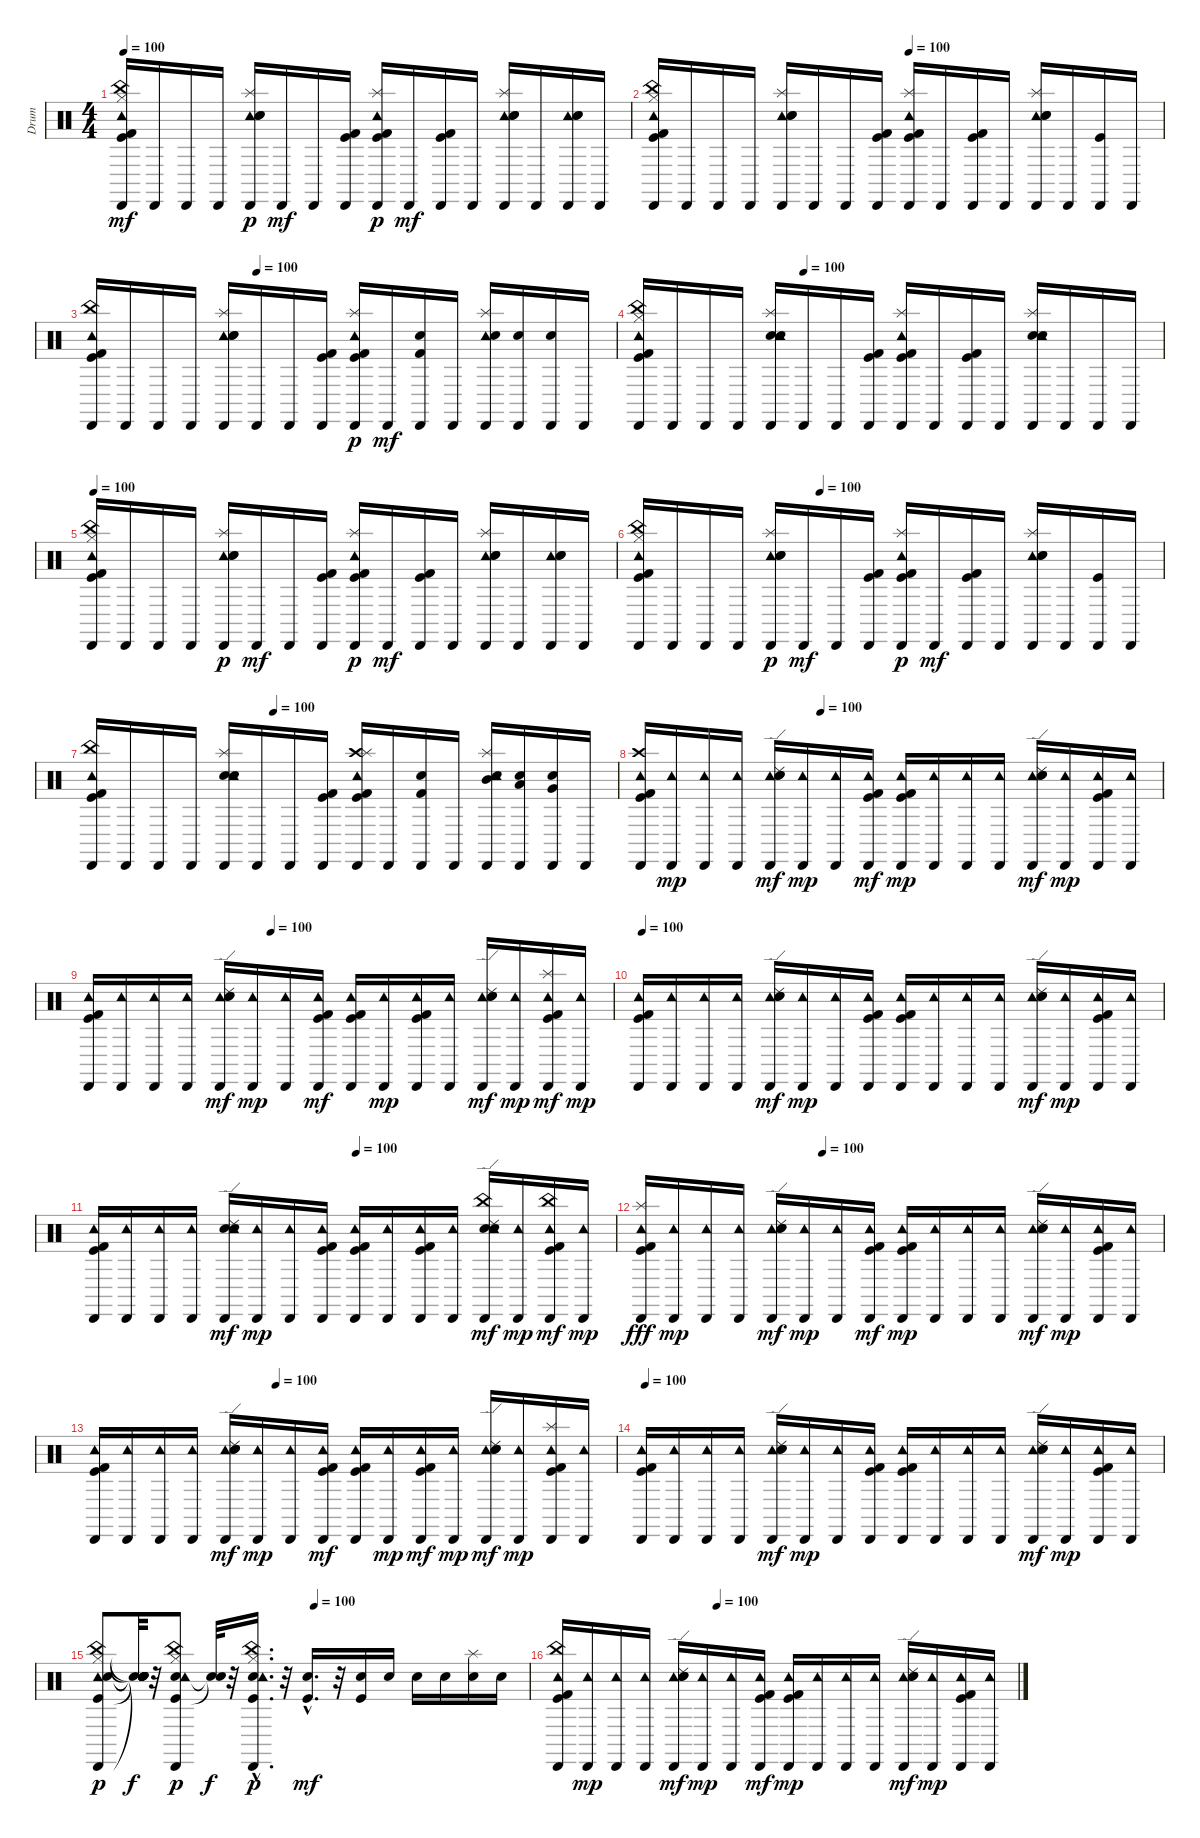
\track ("Drum" "Drum") {instrument percussion}
\staff {score}
\articulation defaults
\ts (4 4)
\tempo 100
\clef neutral
\ks c
("Cabasa (hit)" "Kick (hit)" "Tambourine (hit)" "China (hit)" "Hi-Hat (closed)" "Kick (hit) 2").16{dy mf} "Cabasa (hit)".16 "Cabasa (hit)".16 "Cabasa (hit)".16 ("Tambourine (hit)" "Cabasa (hit)" "Snare (hit) 2" "Splash (hit)" "Electric Snare (hit)").16{dy p} "Cabasa (hit)".16{dy mf} "Cabasa (hit)".16 ("Cabasa (hit)" "Kick (hit) 2" "Kick (hit)").16 ("Tambourine (hit)" "Kick (hit) 2" "Cabasa (hit)" "Kick (hit)" "Splash (hit)").16{dy p} "Cabasa (hit)".16{dy mf} ("Cabasa (hit)" "Kick (hit)" "Kick (hit) 2").16 "Cabasa (hit)".16 ("Tambourine (hit)" "Cabasa (hit)" "Splash (hit)" "Snare (hit) 2" "Electric Snare (hit)").16 "Cabasa (hit)".16 ("Tambourine (hit)" "Cabasa (hit)" "Snare (hit) 2" "Electric Snare (hit)").16 "Cabasa (hit)".16 |
\tempo (100 0.5)
("Hi-Hat (closed)" "Kick (hit)" "China (hit)" "Kick (hit) 2" "Tambourine (hit)" "Cabasa (hit)").16 "Cabasa (hit)".16 "Cabasa (hit)".16 "Cabasa (hit)".16 ("Tambourine (hit)" "Cabasa (hit)" "Splash (hit)" "Electric Snare (hit)" "Snare (hit) 2").16 "Cabasa (hit)".16 "Cabasa (hit)".16 ("Cabasa (hit)" "Kick (hit) 2" "Kick (hit)").16 ("Cabasa (hit)" "Kick (hit) 2" "Splash (hit)" "Tambourine (hit)" "Kick (hit)").16 "Cabasa (hit)".16 ("Kick (hit)" "Cabasa (hit)" "Kick (hit) 2").16 "Cabasa (hit)".16 ("Tambourine (hit)" "Cabasa (hit)" "Electric Snare (hit)" "Splash (hit)" "Snare (hit) 2").16 "Cabasa (hit)".16 ("Cabasa (hit)" "Kick (hit)").16 "Cabasa (hit)".16 |
\tempo (100 0.3125)
("China (hit)" "Kick (hit)" "Cabasa (hit)" "Kick (hit) 2" "Tambourine (hit)").16 "Cabasa (hit)".16 "Cabasa (hit)".16 "Cabasa (hit)".16 ("Tambourine (hit)" "Splash (hit)" "Electric Snare (hit)" "Snare (hit) 2" "Cabasa (hit)").16 "Cabasa (hit)".16 "Cabasa (hit)".16 ("Kick (hit)" "Kick (hit) 2" "Cabasa (hit)").16 ("Cabasa (hit)" "Tambourine (hit)" "Kick (hit) 2" "Kick (hit)" "Splash (hit)").16{dy p} "Cabasa (hit)".16{dy mf} ("Kick (hit) 2" "Snare (hit) 2" "Cabasa (hit)").16 "Cabasa (hit)".16 ("Splash (hit)" "Tambourine (hit)" "Snare (hit) 2" "Cabasa (hit)").16 ("Cabasa (hit)" "Snare (hit) 2").16 ("Cabasa (hit)" "Snare (hit) 2").16 "Cabasa (hit)".16 |
\tempo (100 0.3125)
("Kick (hit) 2" "Hi-Hat (closed)" "China (hit)" "Kick (hit)" "Cabasa (hit)" "Tambourine (hit)").16 "Cabasa (hit)".16 "Cabasa (hit)".16 "Cabasa (hit)".16 ("Splash (hit)" "Snare (hit) 2" "Cabasa (hit)" "Tambourine (hit)" "Electric Snare (hit)").16 "Cabasa (hit)".16 "Cabasa (hit)".16 ("Kick (hit) 2" "Kick (hit)" "Cabasa (hit)").16 ("Kick (hit) 2" "Splash (hit)" "Kick (hit)" "Cabasa (hit)" "Tambourine (hit)").16 "Cabasa (hit)".16 ("Kick (hit) 2" "Kick (hit)" "Cabasa (hit)").16 "Cabasa (hit)".16 ("Snare (hit) 2" "Splash (hit)" "Cabasa (hit)" "Tambourine (hit)" "Electric Snare (hit)").16 "Cabasa (hit)".16 "Cabasa (hit)".16 "Cabasa (hit)".16 |
\tempo 100
("Tambourine (hit)" "Cabasa (hit)" "Kick (hit)" "China (hit)" "Hi-Hat (closed)" "Kick (hit) 2").16 "Cabasa (hit)".16 "Cabasa (hit)".16 "Cabasa (hit)".16 ("Tambourine (hit)" "Cabasa (hit)" "Snare (hit) 2" "Splash (hit)" "Electric Snare (hit)").16{dy p} "Cabasa (hit)".16{dy mf} "Cabasa (hit)".16 ("Cabasa (hit)" "Kick (hit)" "Kick (hit) 2").16 ("Tambourine (hit)" "Cabasa (hit)" "Kick (hit)" "Splash (hit)" "Kick (hit) 2").16{dy p} "Cabasa (hit)".16{dy mf} ("Cabasa (hit)" "Kick (hit)" "Kick (hit) 2").16 "Cabasa (hit)".16 ("Tambourine (hit)" "Cabasa (hit)" "Splash (hit)" "Snare (hit) 2" "Electric Snare (hit)").16 "Cabasa (hit)".16 ("Tambourine (hit)" "Cabasa (hit)" "Snare (hit) 2" "Electric Snare (hit)").16 "Cabasa (hit)".16 |
\tempo (100 0.34375)
("Tambourine (hit)" "Cabasa (hit)" "Kick (hit)" "China (hit)" "Hi-Hat (closed)" "Kick (hit) 2").16 "Cabasa (hit)".16 "Cabasa (hit)".16 "Cabasa (hit)".16 ("Tambourine (hit)" "Cabasa (hit)" "Snare (hit) 2" "Splash (hit)" "Electric Snare (hit)").16{dy p} "Cabasa (hit)".16{dy mf} "Cabasa (hit)".16 ("Cabasa (hit)" "Kick (hit)" "Kick (hit) 2").16 ("Tambourine (hit)" "Cabasa (hit)" "Kick (hit)" "Splash (hit)" "Kick (hit) 2").16{dy p} "Cabasa (hit)".16{dy mf} ("Cabasa (hit)" "Kick (hit)" "Kick (hit) 2").16 "Cabasa (hit)".16 ("Tambourine (hit)" "Cabasa (hit)" "Splash (hit)" "Snare (hit) 2" "Electric Snare (hit)").16 "Cabasa (hit)".16 ("Cabasa (hit)" "Kick (hit)").16 "Cabasa (hit)".16 |
\tempo (100 0.34375)
("China (hit)" "Kick (hit)" "Cabasa (hit)" "Kick (hit) 2" "Tambourine (hit)").16 "Cabasa (hit)".16 "Cabasa (hit)".16 "Cabasa (hit)".16 ("Splash (hit)" "Snare (hit) 2" "Cabasa (hit)" "Tambourine (hit)" "Electric Snare (hit)").16 "Cabasa (hit)".16 "Cabasa (hit)".16 ("Kick (hit)" "Cabasa (hit)" "Kick (hit) 2").16 ("Crash high (hit)" "Splash (hit)" "Kick (hit)" "Cabasa (hit)" "Kick (hit) 2" "Tambourine (hit)").16 "Cabasa (hit)".16 ("Cabasa (hit)" "Snare (hit) 2" "Kick (hit) 2").16 "Cabasa (hit)".16 ("Snare (hit) 2" "Mid Tom (hit)" "Splash (hit)" "Cabasa (hit)" "Tambourine (hit)").16 ("Low Tom (hit)" "Cabasa (hit)" "Snare (hit) 2").16 ("Very Low Tom (hit)" "Snare (hit) 2" "Cabasa (hit)").16 "Cabasa (hit)".16 |
\tempo (100 0.34375)
("Tambourine (hit)" "Kick (hit)" "Crash high (hit)" "Cabasa (hit)" "Kick (hit) 2").16 ("Tambourine (hit)" "Cabasa (hit)").16{dy mp} ("Tambourine (hit)" "Cabasa (hit)").16 ("Tambourine (hit)" "Cabasa (hit)").16 ("Tambourine (hit)" "Snare (hit) 2" "Cabasa (hit)" "Ride (edge) 2" "Electric Snare (hit)").16{dy mf} ("Tambourine (hit)" "Cabasa (hit)").16{dy mp} ("Tambourine (hit)" "Cabasa (hit)").16 ("Tambourine (hit)" "Kick (hit)" "Cabasa (hit)" "Kick (hit) 2").16{dy mf} ("Tambourine (hit)" "Kick (hit)" "Cabasa (hit)" "Kick (hit) 2").16{dy mp} ("Tambourine (hit)" "Cabasa (hit)").16 ("Tambourine (hit)" "Cabasa (hit)").16 ("Tambourine (hit)" "Cabasa (hit)").16 ("Tambourine (hit)" "Snare (hit) 2" "Cabasa (hit)" "Ride (edge) 2" "Electric Snare (hit)").16{dy mf} ("Tambourine (hit)" "Cabasa (hit)").16{dy mp} ("Tambourine (hit)" "Kick (hit)" "Cabasa (hit)" "Kick (hit) 2").16 ("Tambourine (hit)" "Cabasa (hit)").16 |
\tempo (100 0.34375)
("Tambourine (hit)" "Kick (hit)" "Cabasa (hit)" "Kick (hit) 2").16 ("Tambourine (hit)" "Cabasa (hit)").16 ("Tambourine (hit)" "Cabasa (hit)").16 ("Tambourine (hit)" "Cabasa (hit)").16 ("Tambourine (hit)" "Snare (hit) 2" "Cabasa (hit)" "Ride (edge) 2" "Electric Snare (hit)").16{dy mf} ("Tambourine (hit)" "Cabasa (hit)").16{dy mp} ("Tambourine (hit)" "Cabasa (hit)").16 ("Tambourine (hit)" "Kick (hit)" "Cabasa (hit)" "Kick (hit) 2").16{dy mf} ("Tambourine (hit)" "Kick (hit)" "Cabasa (hit)" "Kick (hit) 2").16 ("Tambourine (hit)" "Cabasa (hit)").16{dy mp} ("Tambourine (hit)" "Kick (hit)" "Cabasa (hit)" "Kick (hit) 2").16 ("Tambourine (hit)" "Cabasa (hit)").16 ("Tambourine (hit)" "Snare (hit) 2" "Cabasa (hit)" "Ride (edge) 2" "Electric Snare (hit)").16{dy mf} ("Tambourine (hit)" "Cabasa (hit)").16{dy mp} ("Tambourine (hit)" "Kick (hit)" "Splash (hit)" "Cabasa (hit)" "Kick (hit) 2").16{dy mf} ("Tambourine (hit)" "Cabasa (hit)").16{dy mp} |
\tempo 100
("Cabasa (hit)" "Kick (hit) 2" "Kick (hit)" "Tambourine (hit)").16 ("Cabasa (hit)" "Tambourine (hit)").16 ("Cabasa (hit)" "Tambourine (hit)").16 ("Cabasa (hit)" "Tambourine (hit)").16 ("Cabasa (hit)" "Tambourine (hit)" "Ride (edge) 2" "Snare (hit) 2" "Electric Snare (hit)").16{dy mf} ("Cabasa (hit)" "Tambourine (hit)").16{dy mp} ("Cabasa (hit)" "Tambourine (hit)").16 ("Kick (hit) 2" "Cabasa (hit)" "Kick (hit)" "Tambourine (hit)").16 ("Cabasa (hit)" "Kick (hit)" "Tambourine (hit)" "Kick (hit) 2").16 ("Tambourine (hit)" "Cabasa (hit)").16 ("Tambourine (hit)" "Cabasa (hit)").16 ("Cabasa (hit)" "Tambourine (hit)").16 ("Cabasa (hit)" "Tambourine (hit)" "Ride (edge) 2" "Snare (hit) 2" "Electric Snare (hit)").16{dy mf} ("Cabasa (hit)" "Tambourine (hit)").16{dy mp} ("Cabasa (hit)" "Kick (hit)" "Tambourine (hit)" "Kick (hit) 2").16 ("Tambourine (hit)" "Cabasa (hit)").16 |
\tempo (100 0.5)
("Cabasa (hit)" "Kick (hit)" "Tambourine (hit)" "Kick (hit) 2").16 ("Cabasa (hit)" "Tambourine (hit)").16 ("Cabasa (hit)" "Tambourine (hit)").16 ("Cabasa (hit)" "Tambourine (hit)").16 ("Cabasa (hit)" "Snare (hit) 2" "Tambourine (hit)" "Ride (edge) 2" "Electric Snare (hit)").16{dy mf} ("Cabasa (hit)" "Tambourine (hit)").16{dy mp} ("Cabasa (hit)" "Tambourine (hit)").16 ("Cabasa (hit)" "Kick (hit)" "Tambourine (hit)" "Kick (hit) 2").16 ("Cabasa (hit)" "Kick (hit)" "Tambourine (hit)" "Kick (hit) 2").16 ("Cabasa (hit)" "Tambourine (hit)").16 ("Cabasa (hit)" "Kick (hit)" "Tambourine (hit)" "Kick (hit) 2").16 ("Cabasa (hit)" "Tambourine (hit)").16 ("Cabasa (hit)" "Snare (hit) 2" "Tambourine (hit)" "Ride (edge) 2" "China (hit)" "Electric Snare (hit)").16{dy mf} ("Cabasa (hit)" "Tambourine (hit)").16{dy mp} ("Cabasa (hit)" "Kick (hit)" "Tambourine (hit)" "China (hit)" "Kick (hit) 2").16{dy mf} ("Cabasa (hit)" "Tambourine (hit)").16{dy mp} |
\tempo (100 0.34375)
("Tambourine (hit)" "Kick (hit)" "Cabasa (hit)" "Kick (hit) 2" "Splash (hit)").16{dy fff} ("Tambourine (hit)" "Cabasa (hit)").16{dy mp} ("Tambourine (hit)" "Cabasa (hit)").16 ("Tambourine (hit)" "Cabasa (hit)").16 ("Tambourine (hit)" "Snare (hit) 2" "Cabasa (hit)" "Ride (edge) 2" "Electric Snare (hit)").16{dy mf} ("Tambourine (hit)" "Cabasa (hit)").16{dy mp} ("Tambourine (hit)" "Cabasa (hit)").16 ("Tambourine (hit)" "Kick (hit)" "Cabasa (hit)" "Kick (hit) 2").16{dy mf} ("Tambourine (hit)" "Kick (hit)" "Cabasa (hit)" "Kick (hit) 2").16{dy mp} ("Tambourine (hit)" "Cabasa (hit)").16 ("Tambourine (hit)" "Cabasa (hit)").16 ("Tambourine (hit)" "Cabasa (hit)").16 ("Tambourine (hit)" "Snare (hit) 2" "Cabasa (hit)" "Ride (edge) 2" "Electric Snare (hit)").16{dy mf} ("Tambourine (hit)" "Cabasa (hit)").16{dy mp} ("Tambourine (hit)" "Kick (hit)" "Cabasa (hit)" "Kick (hit) 2").16 ("Tambourine (hit)" "Cabasa (hit)").16 |
\tempo (100 0.34375)
("Tambourine (hit)" "Kick (hit) 2" "Kick (hit)" "Cabasa (hit)").16 ("Tambourine (hit)" "Cabasa (hit)").16 ("Tambourine (hit)" "Cabasa (hit)").16 ("Tambourine (hit)" "Cabasa (hit)").16 ("Tambourine (hit)" "Cabasa (hit)" "Ride (edge) 2" "Snare (hit) 2" "Electric Snare (hit)").16{dy mf} ("Tambourine (hit)" "Cabasa (hit)").16{dy mp} ("Tambourine (hit)" "Cabasa (hit)").16 ("Kick (hit) 2" "Cabasa (hit)" "Tambourine (hit)" "Kick (hit)").16{dy mf} ("Tambourine (hit)" "Kick (hit)" "Cabasa (hit)" "Kick (hit) 2").16 ("Cabasa (hit)" "Tambourine (hit)").16{dy mp} ("Tambourine (hit)" "Cabasa (hit)" "Kick (hit) 2" "Kick (hit)").16{dy mf} ("Cabasa (hit)" "Tambourine (hit)").16{dy mp} ("Tambourine (hit)" "Cabasa (hit)" "Ride (edge) 2" "Snare (hit) 2" "Electric Snare (hit)").16{dy mf} ("Cabasa (hit)" "Tambourine (hit)").16{dy mp} ("Tambourine (hit)" "Kick (hit)" "Splash (hit)" "Kick (hit) 2" "Cabasa (hit)").16 ("Cabasa (hit)" "Tambourine (hit)").16 |
\tempo 100
("Cabasa (hit)" "Kick (hit) 2" "Kick (hit)" "Tambourine (hit)").16 ("Cabasa (hit)" "Tambourine (hit)").16 ("Cabasa (hit)" "Tambourine (hit)").16 ("Cabasa (hit)" "Tambourine (hit)").16 ("Cabasa (hit)" "Tambourine (hit)" "Ride (edge) 2" "Snare (hit) 2" "Electric Snare (hit)").16{dy mf} ("Cabasa (hit)" "Tambourine (hit)").16{dy mp} ("Cabasa (hit)" "Tambourine (hit)").16 ("Kick (hit) 2" "Cabasa (hit)" "Kick (hit)" "Tambourine (hit)").16 ("Cabasa (hit)" "Kick (hit)" "Tambourine (hit)" "Kick (hit) 2").16 ("Tambourine (hit)" "Cabasa (hit)").16 ("Tambourine (hit)" "Cabasa (hit)").16 ("Cabasa (hit)" "Tambourine (hit)").16 ("Cabasa (hit)" "Tambourine (hit)" "Ride (edge) 2" "Snare (hit) 2" "Electric Snare (hit)").16{dy mf} ("Cabasa (hit)" "Tambourine (hit)").16{dy mp} ("Cabasa (hit)" "Kick (hit)" "Tambourine (hit)" "Kick (hit) 2").16 ("Tambourine (hit)" "Cabasa (hit)").16 |
\tempo (100 0.5)
("Tambourine (hit)" "Hi-Hat (closed)" "Snare (hit) 2" "Kick (hit)" "Cabasa (hit)" "China (hit)").8{dy p} ("Snare (hit)"{t} "Snare (hit)"{t} "Snare (hit)"{t} "Snare (hit)"{t} "Snare (hit)"{t} "Snare (hit)"{t}).32{dy f} r.32 ("Snare (hit) 2" "Kick (hit)" "Tambourine (hit)" "Hi-Hat (closed)" "Cabasa (hit)" "China (hit)").8{dy p} ("Snare (hit)"{t} "Snare (hit)"{t}).32{dy f} r.32 ("Snare (hit) 2"{hac} "Kick (hit)"{hac} "Tambourine (hit)"{hac} "Hi-Hat (closed)"{hac} "Cabasa (hit)"{hac} "China (hit)"{hac}).16{d dy p} r.32 ("Kick (hit)"{hac} "Snare (hit) 2"{hac}).16{d dy mf} r.32 ("Snare (hit) 2" "Kick (hit)").16 "Snare (hit) 2".16 "Snare (hit) 2".16 "Snare (hit) 2".16 ("Splash (hit)" "Snare (hit) 2").16 "Snare (hit) 2".16 |
\tempo (100 0.34375)
("Tambourine (hit)" "Kick (hit)" "Cabasa (hit)" "Kick (hit) 2" "China (hit)").16 ("Tambourine (hit)" "Cabasa (hit)").16{dy mp} ("Tambourine (hit)" "Cabasa (hit)").16 ("Tambourine (hit)" "Cabasa (hit)").16 ("Tambourine (hit)" "Snare (hit) 2" "Cabasa (hit)" "Ride (edge) 2" "Electric Snare (hit)").16{dy mf} ("Tambourine (hit)" "Cabasa (hit)").16{dy mp} ("Tambourine (hit)" "Cabasa (hit)").16 ("Tambourine (hit)" "Kick (hit)" "Cabasa (hit)" "Kick (hit) 2").16{dy mf} ("Tambourine (hit)" "Kick (hit)" "Cabasa (hit)" "Kick (hit) 2").16{dy mp} ("Tambourine (hit)" "Cabasa (hit)").16 ("Tambourine (hit)" "Cabasa (hit)").16 ("Tambourine (hit)" "Cabasa (hit)").16 ("Tambourine (hit)" "Snare (hit) 2" "Cabasa (hit)" "Ride (edge) 2" "Electric Snare (hit)").16{dy mf} ("Tambourine (hit)" "Cabasa (hit)").16{dy mp} ("Tambourine (hit)" "Kick (hit)" "Cabasa (hit)" "Kick (hit) 2").16 ("Tambourine (hit)" "Cabasa (hit)").16
